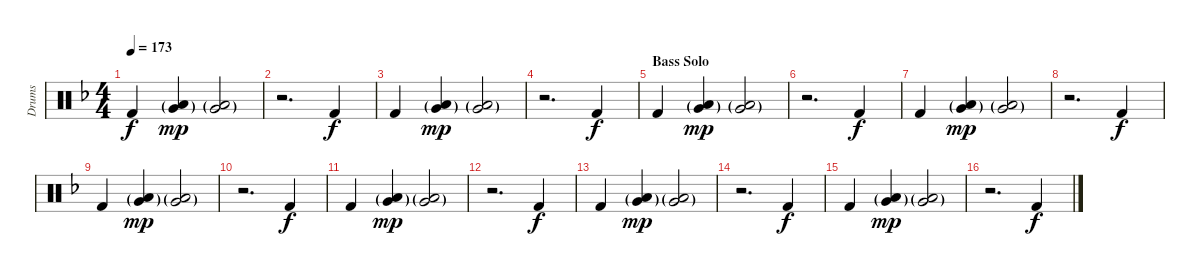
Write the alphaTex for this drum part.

\track ("Drums" "Drums") {instrument percussion}
\staff {score}
\articulation defaults
\ts (4 4)
\tempo 173
\clef neutral
\ks dminor "Kick (hit) 2".4{dy f}
("Low Floor Tom (hit)"{g} "Very Low Tom (hit)"{g}).4{dy mp} ("Low Floor Tom (hit)"{g} "Very Low Tom (hit)"{g}).2 |
r.2{d} "Kick (hit) 2".4{dy f} |
"Kick (hit) 2".4 ("Low Floor Tom (hit)"{g} "Very Low Tom (hit)"{g}).4{dy mp} ("Low Floor Tom (hit)"{g} "Very Low Tom (hit)"{g}).2 |
r.2{d} "Kick (hit) 2".4{dy f} |
\section ("" "Bass Solo")
"Kick (hit) 2".4 ("Low Floor Tom (hit)"{g} "Very Low Tom (hit)"{g}).4{dy mp} ("Low Floor Tom (hit)"{g} "Very Low Tom (hit)"{g}).2 |
r.2{d} "Kick (hit) 2".4{dy f} |
"Kick (hit) 2".4 ("Low Floor Tom (hit)"{g} "Very Low Tom (hit)"{g}).4{dy mp} ("Low Floor Tom (hit)"{g} "Very Low Tom (hit)"{g}).2 |
r.2{d} "Kick (hit) 2".4{dy f} |
"Kick (hit) 2".4 ("Low Floor Tom (hit)"{g} "Very Low Tom (hit)"{g}).4{dy mp} ("Low Floor Tom (hit)"{g} "Very Low Tom (hit)"{g}).2 |
r.2{d} "Kick (hit) 2".4{dy f} |
"Kick (hit) 2".4 ("Low Floor Tom (hit)"{g} "Very Low Tom (hit)"{g}).4{dy mp} ("Low Floor Tom (hit)"{g} "Very Low Tom (hit)"{g}).2 |
r.2{d} "Kick (hit) 2".4{dy f} |
"Kick (hit) 2".4 ("Low Floor Tom (hit)"{g} "Very Low Tom (hit)"{g}).4{dy mp} ("Low Floor Tom (hit)"{g} "Very Low Tom (hit)"{g}).2 |
r.2{d} "Kick (hit) 2".4{dy f} |
"Kick (hit) 2".4 ("Low Floor Tom (hit)"{g} "Very Low Tom (hit)"{g}).4{dy mp} ("Low Floor Tom (hit)"{g} "Very Low Tom (hit)"{g}).2 |
r.2{d} "Kick (hit) 2".4{dy f}
